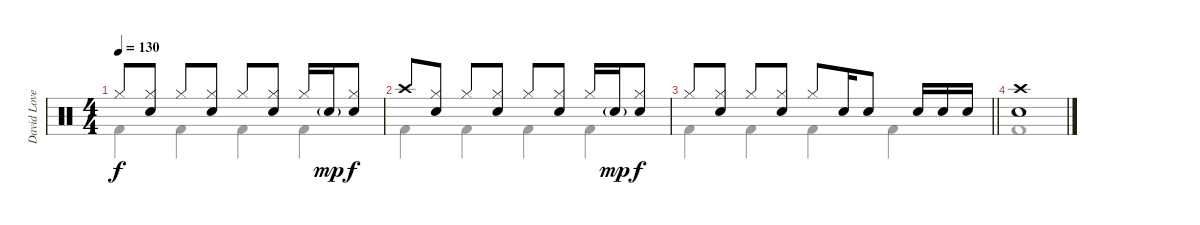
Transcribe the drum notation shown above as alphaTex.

\track ("David Lovering" "David Love") {instrument percussion}
\staff {score}
\articulation defaults
\voice
\ts (4 4)
\tempo 130
\clef neutral
\ks c "Hi-Hat (closed)".8{dy f}
("Hi-Hat (closed)" "Snare (hit) 2").8 "Hi-Hat (closed)".8 ("Hi-Hat (closed)" "Snare (hit) 2").8 "Hi-Hat (closed)".8 ("Hi-Hat (closed)" "Snare (hit) 2").8 "Hi-Hat (closed)".16 "Snare (hit) 2"{g}.16{dy mp} ("Hi-Hat (closed)" "Snare (hit) 2").8{dy f} |
"Crash high (hit)".8 ("Hi-Hat (closed)" "Snare (hit) 2").8 "Hi-Hat (closed)".8 ("Hi-Hat (closed)" "Snare (hit) 2").8 "Hi-Hat (closed)".8 ("Hi-Hat (closed)" "Snare (hit) 2").8 "Hi-Hat (closed)".16 "Snare (hit) 2"{g}.16{dy mp} ("Hi-Hat (closed)" "Snare (hit) 2").8{dy f} |
\barLineRight lightlight "Hi-Hat (closed)".8
("Hi-Hat (closed)" "Snare (hit) 2").8 "Hi-Hat (closed)".8 ("Hi-Hat (closed)" "Snare (hit) 2").8 "Hi-Hat (closed)".8 "Snare (hit) 2".16 "Snare (hit) 2".8 "Snare (hit) 2".16 "Snare (hit) 2".16 "Snare (hit) 2".16 |
("Crash high (hit)" "Snare (hit) 2").1
\voice
\clef neutral
\ottava regular
\simile none
\ks c "Kick (hit) 2".4{dy f} "Kick (hit) 2".4 "Kick (hit) 2".4 "Kick (hit) 2".4
|
"Kick (hit) 2".4 "Kick (hit) 2".4 "Kick (hit) 2".4 "Kick (hit) 2".4 |
\barLineRight lightlight "Kick (hit) 2".4 "Kick (hit) 2".4 "Kick (hit) 2".4 "Kick (hit) 2".4
|
"Kick (hit) 2".1
